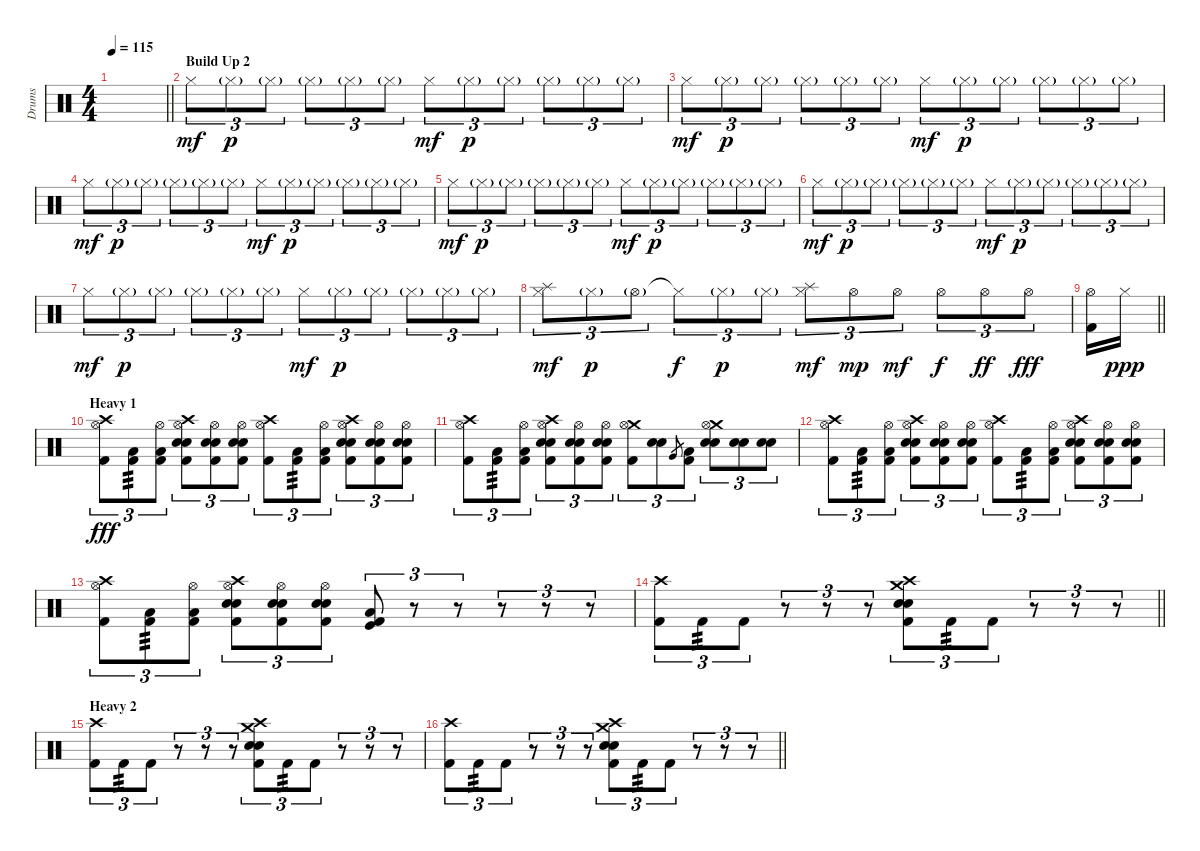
\track ("Drums" "Drums") {instrument percussion}
\staff {score}
\articulation defaults
\ts (4 4)
\tempo 115
\clef neutral
\barLineRight lightlight
\ks c
|
\section ("" "Build Up 2")
"Hi-Hat (closed)".8{tu (3 2) dy mf} "Hi-Hat (closed)"{g}.8{tu (3 2) dy p} "Hi-Hat (closed)"{g}.8{tu (3 2)} "Hi-Hat (closed)"{g}.8{tu (3 2)} "Hi-Hat (closed)"{g}.8{tu (3 2)} "Hi-Hat (closed)"{g}.8{tu (3 2)} "Hi-Hat (closed)".8{tu (3 2) dy mf} "Hi-Hat (closed)"{g}.8{tu (3 2) dy p} "Hi-Hat (closed)"{g}.8{tu (3 2)} "Hi-Hat (closed)"{g}.8{tu (3 2)} "Hi-Hat (closed)"{g}.8{tu (3 2)} "Hi-Hat (closed)"{g}.8{tu (3 2)} |
"Hi-Hat (closed)".8{tu (3 2) dy mf} "Hi-Hat (closed)"{g}.8{tu (3 2) dy p} "Hi-Hat (closed)"{g}.8{tu (3 2)} "Hi-Hat (closed)"{g}.8{tu (3 2)} "Hi-Hat (closed)"{g}.8{tu (3 2)} "Hi-Hat (closed)"{g}.8{tu (3 2)} "Hi-Hat (closed)".8{tu (3 2) dy mf} "Hi-Hat (closed)"{g}.8{tu (3 2) dy p} "Hi-Hat (closed)"{g}.8{tu (3 2)} "Hi-Hat (closed)"{g}.8{tu (3 2)} "Hi-Hat (closed)"{g}.8{tu (3 2)} "Hi-Hat (closed)"{g}.8{tu (3 2)} |
"Hi-Hat (closed)".8{tu (3 2) dy mf} "Hi-Hat (closed)"{g}.8{tu (3 2) dy p} "Hi-Hat (closed)"{g}.8{tu (3 2)} "Hi-Hat (closed)"{g}.8{tu (3 2)} "Hi-Hat (closed)"{g}.8{tu (3 2)} "Hi-Hat (closed)"{g}.8{tu (3 2)} "Hi-Hat (closed)".8{tu (3 2) dy mf} "Hi-Hat (closed)"{g}.8{tu (3 2) dy p} "Hi-Hat (closed)"{g}.8{tu (3 2)} "Hi-Hat (closed)"{g}.8{tu (3 2)} "Hi-Hat (closed)"{g}.8{tu (3 2)} "Hi-Hat (closed)"{g}.8{tu (3 2)} |
"Hi-Hat (closed)".8{tu (3 2) dy mf} "Hi-Hat (closed)"{g}.8{tu (3 2) dy p} "Hi-Hat (closed)"{g}.8{tu (3 2)} "Hi-Hat (closed)"{g}.8{tu (3 2)} "Hi-Hat (closed)"{g}.8{tu (3 2)} "Hi-Hat (closed)"{g}.8{tu (3 2)} "Hi-Hat (closed)".8{tu (3 2) dy mf} "Hi-Hat (closed)"{g}.8{tu (3 2) dy p} "Hi-Hat (closed)"{g}.8{tu (3 2)} "Hi-Hat (closed)"{g}.8{tu (3 2)} "Hi-Hat (closed)"{g}.8{tu (3 2)} "Hi-Hat (closed)"{g}.8{tu (3 2)} |
"Hi-Hat (closed)".8{tu (3 2) dy mf} "Hi-Hat (closed)"{g}.8{tu (3 2) dy p} "Hi-Hat (closed)"{g}.8{tu (3 2)} "Hi-Hat (closed)"{g}.8{tu (3 2)} "Hi-Hat (closed)"{g}.8{tu (3 2)} "Hi-Hat (closed)"{g}.8{tu (3 2)} "Hi-Hat (closed)".8{tu (3 2) dy mf} "Hi-Hat (closed)"{g}.8{tu (3 2) dy p} "Hi-Hat (closed)"{g}.8{tu (3 2)} "Hi-Hat (closed)"{g}.8{tu (3 2)} "Hi-Hat (closed)"{g}.8{tu (3 2)} "Hi-Hat (closed)"{g}.8{tu (3 2)} |
"Hi-Hat (closed)".8{tu (3 2) dy mf} "Hi-Hat (closed)"{g}.8{tu (3 2) dy p} "Hi-Hat (closed)"{g}.8{tu (3 2)} "Hi-Hat (closed)"{g}.8{tu (3 2)} "Hi-Hat (closed)"{g}.8{tu (3 2)} "Hi-Hat (closed)"{g}.8{tu (3 2)} "Hi-Hat (closed)".8{tu (3 2) dy mf} "Hi-Hat (closed)"{g}.8{tu (3 2) dy p} "Hi-Hat (closed)"{g}.8{tu (3 2)} "Hi-Hat (closed)"{g}.8{tu (3 2)} "Hi-Hat (closed)"{g}.8{tu (3 2)} "Hi-Hat (closed)"{g}.8{tu (3 2)} |
("Splash (hit)" "Hi-Hat (closed)").8{tu (3 2) dy mf} "Hi-Hat (closed)"{g}.8{tu (3 2) dy p} "Hi-Hat (open)"{g}.8{tu (3 2)} "Hi-Hat (closed)"{t}.8{tu (3 2) dy f} "Hi-Hat (closed)"{g}.8{tu (3 2) dy p} "Hi-Hat (closed)"{g}.8{tu (3 2)} ("Splash (hit)" "Hi-Hat (closed)").8{tu (3 2) dy mf} "Hi-Hat (open)".8{tu (3 2) dy mp} "Hi-Hat (open)".8{tu (3 2) dy mf} "Hi-Hat (open)".8{tu (3 2) dy f} "Hi-Hat (open)".8{tu (3 2) dy ff} "Hi-Hat (open)".8{tu (3 2) dy fff} |
\barLineRight lightlight
("Hi-Hat (open)" "Kick (hit) 2").16 "Hi-Hat (closed)".16{dy ppp} |
\section ("" "Heavy 1")
("Crash high (hit)" "Hi-Hat (open)" "Kick (hit) 2").8{tu (3 2) dy fff} ("Low Floor Tom (hit)" "Kick (hit) 2").8{tu (3 2) tp 3} ("Hi-Hat (open)" "Low Floor Tom (hit)" "Kick (hit) 2").8{tu (3 2)} ("Crash high (hit)" "Hi-Hat (open)" "Electric Snare (hit)" "Snare (hit) 2" "Kick (hit) 2").8{tu (3 2)} ("Hi-Hat (open)" "Electric Snare (hit)" "Snare (hit) 2" "Kick (hit) 2").8{tu (3 2)} ("Hi-Hat (open)" "Electric Snare (hit)" "Snare (hit) 2" "Kick (hit) 2").8{tu (3 2)} ("Crash high (hit)" "Hi-Hat (open)" "Kick (hit) 2").8{tu (3 2)} ("Low Floor Tom (hit)" "Kick (hit) 2").8{tu (3 2) tp 3} ("Hi-Hat (open)" "Low Floor Tom (hit)" "Kick (hit) 2").8{tu (3 2)} ("Crash high (hit)" "Hi-Hat (open)" "Electric Snare (hit)" "Snare (hit) 2" "Kick (hit) 2").8{tu (3 2)} ("Hi-Hat (open)" "Electric Snare (hit)" "Snare (hit) 2" "Kick (hit) 2").8{tu (3 2)} ("Hi-Hat (open)" "Electric Snare (hit)" "Snare (hit) 2" "Kick (hit) 2").8{tu (3 2)} |
("Crash high (hit)" "Hi-Hat (open)" "Kick (hit) 2").8{tu (3 2)} ("Low Floor Tom (hit)" "Kick (hit) 2").8{tu (3 2) tp 3} ("Hi-Hat (open)" "Low Floor Tom (hit)" "Kick (hit) 2").8{tu (3 2)} ("Crash high (hit)" "Hi-Hat (open)" "Electric Snare (hit)" "Snare (hit) 2" "Kick (hit) 2").8{tu (3 2)} ("Hi-Hat (open)" "Electric Snare (hit)" "Snare (hit) 2" "Kick (hit) 2").8{tu (3 2)} ("Hi-Hat (open)" "Electric Snare (hit)" "Snare (hit) 2" "Kick (hit) 2").8{tu (3 2)} ("Crash medium (hit)" "Hi-Hat (open)" "Kick (hit) 2").8{tu (3 2)} ("Electric Snare (hit)" "Snare (hit) 2").8{tu (3 2)} "Very Low Tom (hit)".8{gr} ("Low Floor Tom (hit)" "Kick (hit) 2").8{tu (3 2)} ("Crash medium (hit)" "Hi-Hat (open)" "Electric Snare (hit)" "Snare (hit) 2").8{tu (3 2)} ("Electric Snare (hit)" "Snare (hit) 2").8{tu (3 2)} ("Electric Snare (hit)" "Snare (hit) 2").8{tu (3 2)} |
("Crash high (hit)" "Hi-Hat (open)" "Kick (hit) 2").8{tu (3 2)} ("Low Floor Tom (hit)" "Kick (hit) 2").8{tu (3 2) tp 3} ("Hi-Hat (open)" "Low Floor Tom (hit)" "Kick (hit) 2").8{tu (3 2)} ("Crash high (hit)" "Hi-Hat (open)" "Electric Snare (hit)" "Snare (hit) 2" "Kick (hit) 2").8{tu (3 2)} ("Hi-Hat (open)" "Electric Snare (hit)" "Snare (hit) 2" "Kick (hit) 2").8{tu (3 2)} ("Hi-Hat (open)" "Electric Snare (hit)" "Snare (hit) 2" "Kick (hit) 2").8{tu (3 2)} ("Crash high (hit)" "Hi-Hat (open)" "Kick (hit) 2").8{tu (3 2)} ("Low Floor Tom (hit)" "Kick (hit) 2").8{tu (3 2) tp 3} ("Hi-Hat (open)" "Low Floor Tom (hit)" "Kick (hit) 2").8{tu (3 2)} ("Crash high (hit)" "Hi-Hat (open)" "Electric Snare (hit)" "Snare (hit) 2" "Kick (hit) 2").8{tu (3 2)} ("Hi-Hat (open)" "Electric Snare (hit)" "Snare (hit) 2" "Kick (hit) 2").8{tu (3 2)} ("Hi-Hat (open)" "Electric Snare (hit)" "Snare (hit) 2" "Kick (hit) 2").8{tu (3 2)} |
("Crash high (hit)" "Hi-Hat (open)" "Kick (hit) 2").8{tu (3 2)} ("Low Floor Tom (hit)" "Kick (hit) 2").8{tu (3 2) tp 3} ("Hi-Hat (open)" "Low Floor Tom (hit)" "Kick (hit) 2").8{tu (3 2)} ("Crash high (hit)" "Hi-Hat (open)" "Electric Snare (hit)" "Snare (hit) 2" "Kick (hit) 2").8{tu (3 2)} ("Hi-Hat (open)" "Electric Snare (hit)" "Snare (hit) 2" "Kick (hit) 2").8{tu (3 2)} ("Hi-Hat (open)" "Electric Snare (hit)" "Snare (hit) 2" "Kick (hit) 2").8{tu (3 2)} ("Kick (hit)" "Low Floor Tom (hit)" "Kick (hit) 2").8{tu (3 2)} r.8{tu (3 2)} r.8{tu (3 2)} r.8{tu (3 2)} r.8{tu (3 2)} r.8{tu (3 2)} |
\barLineRight lightlight
("Crash high (hit)" "Kick (hit) 2").8{tu (3 2)} "Kick (hit) 2".8{tu (3 2) tp 3} "Kick (hit) 2".8{tu (3 2)} r.8{tu (3 2)} r.8{tu (3 2)} r.8{tu (3 2)} ("Crash high (hit)" "Crash medium (hit)" "Snare (hit) 2" "Electric Snare (hit)" "Kick (hit) 2").8{tu (3 2)} "Kick (hit) 2".8{tu (3 2) tp 3} "Kick (hit) 2".8{tu (3 2)} r.8{tu (3 2)} r.8{tu (3 2)} r.8{tu (3 2)} |
\section ("" "Heavy 2")
("Crash high (hit)" "Kick (hit) 2").8{tu (3 2)} "Kick (hit) 2".8{tu (3 2) tp 3} "Kick (hit) 2".8{tu (3 2)} r.8{tu (3 2)} r.8{tu (3 2)} r.8{tu (3 2)} ("Crash high (hit)" "Crash medium (hit)" "Snare (hit) 2" "Electric Snare (hit)" "Kick (hit) 2").8{tu (3 2)} "Kick (hit) 2".8{tu (3 2) tp 3} "Kick (hit) 2".8{tu (3 2)} r.8{tu (3 2)} r.8{tu (3 2)} r.8{tu (3 2)} |
\barLineRight lightlight
("Crash high (hit)" "Kick (hit) 2").8{tu (3 2)} "Kick (hit) 2".8{tu (3 2) tp 3} "Kick (hit) 2".8{tu (3 2)} r.8{tu (3 2)} r.8{tu (3 2)} r.8{tu (3 2)} ("Crash high (hit)" "Crash medium (hit)" "Snare (hit) 2" "Electric Snare (hit)" "Kick (hit) 2").8{tu (3 2)} "Kick (hit) 2".8{tu (3 2) tp 3} "Kick (hit) 2".8{tu (3 2)} r.8{tu (3 2)} r.8{tu (3 2)} r.8{tu (3 2)}
